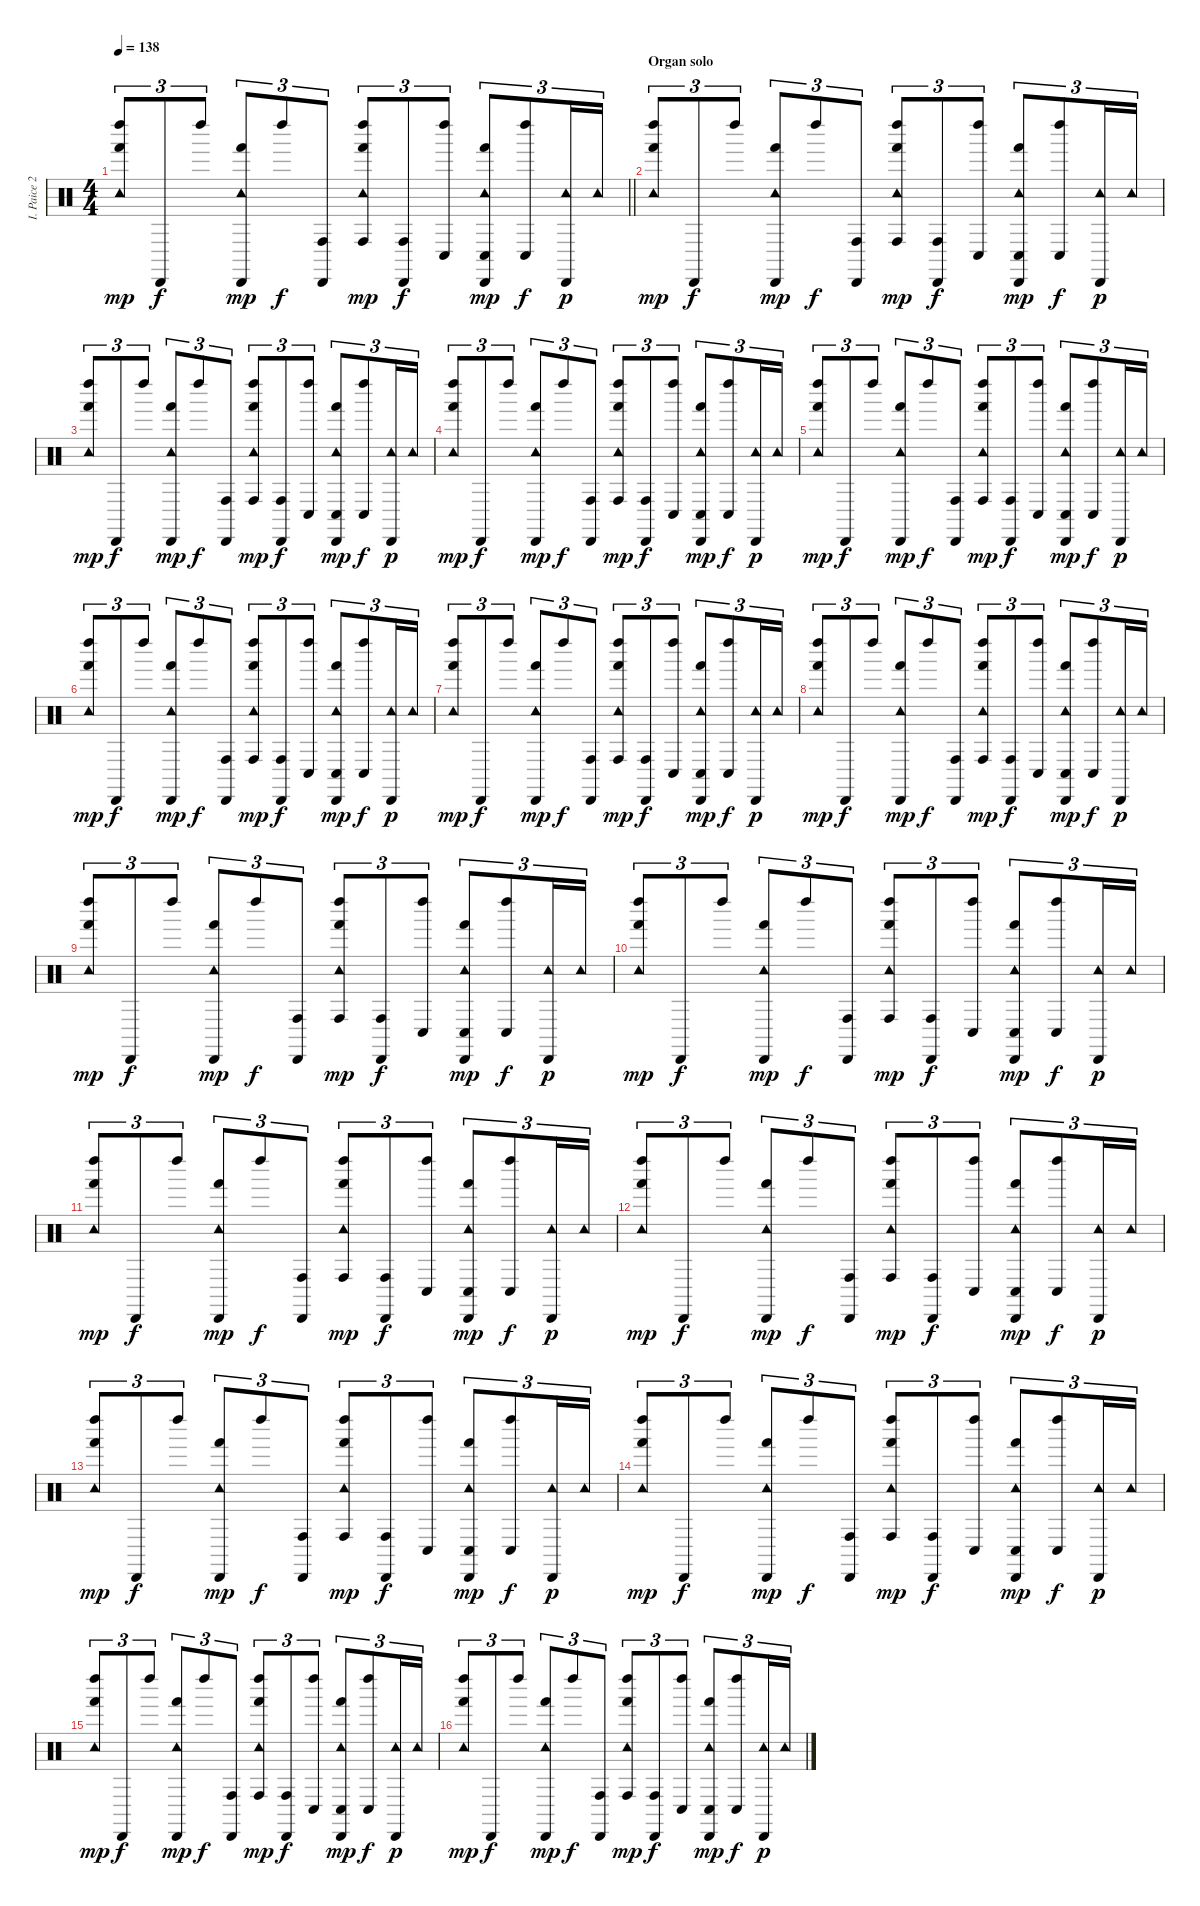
\track ("I. Paice 2" "I. Paice 2") {instrument percussion}
\staff {score}
\articulation defaults
\ts (4 4)
\tempo 138
\clef neutral
\barLineRight lightlight
\ks c
("Tambourine (hit)" "Left Maraca (hit)" "Hand (hit)").8{tu (3 2) dy mp} "Cabasa (hit)".8{tu (3 2) dy f} "Left Maraca (hit)".8{tu (3 2)} ("Tambourine (hit)" "Cabasa (hit)" "Hand (hit)").8{tu (3 2) dy mp} "Left Maraca (hit)".8{tu (3 2) dy f} ("Cabasa (hit)" "Conga high (hit)").8{tu (3 2)} ("Tambourine (hit)" "Left Maraca (hit)" "Hand (hit)" "Conga high (hit)").8{tu (3 2) dy mp} ("Cabasa (hit)" "Conga high (hit)").8{tu (3 2) dy f} ("Left Maraca (hit)" "Conga low (hit)").8{tu (3 2)} ("Tambourine (hit)" "Cabasa (hit)" "Hand (hit)" "Conga low (hit)").8{tu (3 2) dy mp} ("Left Maraca (hit)" "Conga low (hit)").8{tu (3 2) dy f} ("Tambourine (hit)" "Cabasa (hit)").16{tu (3 2) dy p} "Tambourine (hit)".16{tu (3 2)} |
\section ("" "Organ solo")
("Tambourine (hit)" "Left Maraca (hit)" "Hand (hit)").8{tu (3 2) dy mp} "Cabasa (hit)".8{tu (3 2) dy f} "Left Maraca (hit)".8{tu (3 2)} ("Tambourine (hit)" "Cabasa (hit)" "Hand (hit)").8{tu (3 2) dy mp} "Left Maraca (hit)".8{tu (3 2) dy f} ("Cabasa (hit)" "Conga high (hit)").8{tu (3 2)} ("Tambourine (hit)" "Left Maraca (hit)" "Hand (hit)" "Conga high (hit)").8{tu (3 2) dy mp} ("Cabasa (hit)" "Conga high (hit)").8{tu (3 2) dy f} ("Left Maraca (hit)" "Conga low (hit)").8{tu (3 2)} ("Tambourine (hit)" "Cabasa (hit)" "Hand (hit)" "Conga low (hit)").8{tu (3 2) dy mp} ("Left Maraca (hit)" "Conga low (hit)").8{tu (3 2) dy f} ("Tambourine (hit)" "Cabasa (hit)").16{tu (3 2) dy p} "Tambourine (hit)".16{tu (3 2)} |
("Tambourine (hit)" "Left Maraca (hit)" "Hand (hit)").8{tu (3 2) dy mp} "Cabasa (hit)".8{tu (3 2) dy f} "Left Maraca (hit)".8{tu (3 2)} ("Tambourine (hit)" "Cabasa (hit)" "Hand (hit)").8{tu (3 2) dy mp} "Left Maraca (hit)".8{tu (3 2) dy f} ("Cabasa (hit)" "Conga high (hit)").8{tu (3 2)} ("Tambourine (hit)" "Left Maraca (hit)" "Hand (hit)" "Conga high (hit)").8{tu (3 2) dy mp} ("Cabasa (hit)" "Conga high (hit)").8{tu (3 2) dy f} ("Left Maraca (hit)" "Conga low (hit)").8{tu (3 2)} ("Tambourine (hit)" "Cabasa (hit)" "Hand (hit)" "Conga low (hit)").8{tu (3 2) dy mp} ("Left Maraca (hit)" "Conga low (hit)").8{tu (3 2) dy f} ("Tambourine (hit)" "Cabasa (hit)").16{tu (3 2) dy p} "Tambourine (hit)".16{tu (3 2)} |
("Tambourine (hit)" "Left Maraca (hit)" "Hand (hit)").8{tu (3 2) dy mp} "Cabasa (hit)".8{tu (3 2) dy f} "Left Maraca (hit)".8{tu (3 2)} ("Tambourine (hit)" "Cabasa (hit)" "Hand (hit)").8{tu (3 2) dy mp} "Left Maraca (hit)".8{tu (3 2) dy f} ("Cabasa (hit)" "Conga high (hit)").8{tu (3 2)} ("Tambourine (hit)" "Left Maraca (hit)" "Hand (hit)" "Conga high (hit)").8{tu (3 2) dy mp} ("Cabasa (hit)" "Conga high (hit)").8{tu (3 2) dy f} ("Left Maraca (hit)" "Conga low (hit)").8{tu (3 2)} ("Tambourine (hit)" "Cabasa (hit)" "Hand (hit)" "Conga low (hit)").8{tu (3 2) dy mp} ("Left Maraca (hit)" "Conga low (hit)").8{tu (3 2) dy f} ("Tambourine (hit)" "Cabasa (hit)").16{tu (3 2) dy p} "Tambourine (hit)".16{tu (3 2)} |
("Tambourine (hit)" "Left Maraca (hit)" "Hand (hit)").8{tu (3 2) dy mp} "Cabasa (hit)".8{tu (3 2) dy f} "Left Maraca (hit)".8{tu (3 2)} ("Tambourine (hit)" "Cabasa (hit)" "Hand (hit)").8{tu (3 2) dy mp} "Left Maraca (hit)".8{tu (3 2) dy f} ("Cabasa (hit)" "Conga high (hit)").8{tu (3 2)} ("Tambourine (hit)" "Left Maraca (hit)" "Hand (hit)" "Conga high (hit)").8{tu (3 2) dy mp} ("Cabasa (hit)" "Conga high (hit)").8{tu (3 2) dy f} ("Left Maraca (hit)" "Conga low (hit)").8{tu (3 2)} ("Tambourine (hit)" "Cabasa (hit)" "Hand (hit)" "Conga low (hit)").8{tu (3 2) dy mp} ("Left Maraca (hit)" "Conga low (hit)").8{tu (3 2) dy f} ("Tambourine (hit)" "Cabasa (hit)").16{tu (3 2) dy p} "Tambourine (hit)".16{tu (3 2)} |
("Tambourine (hit)" "Left Maraca (hit)" "Hand (hit)").8{tu (3 2) dy mp} "Cabasa (hit)".8{tu (3 2) dy f} "Left Maraca (hit)".8{tu (3 2)} ("Tambourine (hit)" "Cabasa (hit)" "Hand (hit)").8{tu (3 2) dy mp} "Left Maraca (hit)".8{tu (3 2) dy f} ("Cabasa (hit)" "Conga high (hit)").8{tu (3 2)} ("Tambourine (hit)" "Left Maraca (hit)" "Hand (hit)" "Conga high (hit)").8{tu (3 2) dy mp} ("Cabasa (hit)" "Conga high (hit)").8{tu (3 2) dy f} ("Left Maraca (hit)" "Conga low (hit)").8{tu (3 2)} ("Tambourine (hit)" "Cabasa (hit)" "Hand (hit)" "Conga low (hit)").8{tu (3 2) dy mp} ("Left Maraca (hit)" "Conga low (hit)").8{tu (3 2) dy f} ("Tambourine (hit)" "Cabasa (hit)").16{tu (3 2) dy p} "Tambourine (hit)".16{tu (3 2)} |
("Tambourine (hit)" "Left Maraca (hit)" "Hand (hit)").8{tu (3 2) dy mp} "Cabasa (hit)".8{tu (3 2) dy f} "Left Maraca (hit)".8{tu (3 2)} ("Tambourine (hit)" "Cabasa (hit)" "Hand (hit)").8{tu (3 2) dy mp} "Left Maraca (hit)".8{tu (3 2) dy f} ("Cabasa (hit)" "Conga high (hit)").8{tu (3 2)} ("Tambourine (hit)" "Left Maraca (hit)" "Hand (hit)" "Conga high (hit)").8{tu (3 2) dy mp} ("Cabasa (hit)" "Conga high (hit)").8{tu (3 2) dy f} ("Left Maraca (hit)" "Conga low (hit)").8{tu (3 2)} ("Tambourine (hit)" "Cabasa (hit)" "Hand (hit)" "Conga low (hit)").8{tu (3 2) dy mp} ("Left Maraca (hit)" "Conga low (hit)").8{tu (3 2) dy f} ("Tambourine (hit)" "Cabasa (hit)").16{tu (3 2) dy p} "Tambourine (hit)".16{tu (3 2)} |
("Tambourine (hit)" "Left Maraca (hit)" "Hand (hit)").8{tu (3 2) dy mp} "Cabasa (hit)".8{tu (3 2) dy f} "Left Maraca (hit)".8{tu (3 2)} ("Tambourine (hit)" "Cabasa (hit)" "Hand (hit)").8{tu (3 2) dy mp} "Left Maraca (hit)".8{tu (3 2) dy f} ("Cabasa (hit)" "Conga high (hit)").8{tu (3 2)} ("Tambourine (hit)" "Left Maraca (hit)" "Hand (hit)" "Conga high (hit)").8{tu (3 2) dy mp} ("Cabasa (hit)" "Conga high (hit)").8{tu (3 2) dy f} ("Left Maraca (hit)" "Conga low (hit)").8{tu (3 2)} ("Tambourine (hit)" "Cabasa (hit)" "Hand (hit)" "Conga low (hit)").8{tu (3 2) dy mp} ("Left Maraca (hit)" "Conga low (hit)").8{tu (3 2) dy f} ("Tambourine (hit)" "Cabasa (hit)").16{tu (3 2) dy p} "Tambourine (hit)".16{tu (3 2)} |
("Tambourine (hit)" "Left Maraca (hit)" "Hand (hit)").8{tu (3 2) dy mp} "Cabasa (hit)".8{tu (3 2) dy f} "Left Maraca (hit)".8{tu (3 2)} ("Tambourine (hit)" "Cabasa (hit)" "Hand (hit)").8{tu (3 2) dy mp} "Left Maraca (hit)".8{tu (3 2) dy f} ("Cabasa (hit)" "Conga high (hit)").8{tu (3 2)} ("Tambourine (hit)" "Left Maraca (hit)" "Hand (hit)" "Conga high (hit)").8{tu (3 2) dy mp} ("Cabasa (hit)" "Conga high (hit)").8{tu (3 2) dy f} ("Left Maraca (hit)" "Conga low (hit)").8{tu (3 2)} ("Tambourine (hit)" "Cabasa (hit)" "Hand (hit)" "Conga low (hit)").8{tu (3 2) dy mp} ("Left Maraca (hit)" "Conga low (hit)").8{tu (3 2) dy f} ("Tambourine (hit)" "Cabasa (hit)").16{tu (3 2) dy p} "Tambourine (hit)".16{tu (3 2)} |
("Tambourine (hit)" "Left Maraca (hit)" "Hand (hit)").8{tu (3 2) dy mp} "Cabasa (hit)".8{tu (3 2) dy f} "Left Maraca (hit)".8{tu (3 2)} ("Tambourine (hit)" "Cabasa (hit)" "Hand (hit)").8{tu (3 2) dy mp} "Left Maraca (hit)".8{tu (3 2) dy f} ("Cabasa (hit)" "Conga high (hit)").8{tu (3 2)} ("Tambourine (hit)" "Left Maraca (hit)" "Hand (hit)" "Conga high (hit)").8{tu (3 2) dy mp} ("Cabasa (hit)" "Conga high (hit)").8{tu (3 2) dy f} ("Left Maraca (hit)" "Conga low (hit)").8{tu (3 2)} ("Tambourine (hit)" "Cabasa (hit)" "Hand (hit)" "Conga low (hit)").8{tu (3 2) dy mp} ("Left Maraca (hit)" "Conga low (hit)").8{tu (3 2) dy f} ("Tambourine (hit)" "Cabasa (hit)").16{tu (3 2) dy p} "Tambourine (hit)".16{tu (3 2)} |
("Tambourine (hit)" "Left Maraca (hit)" "Hand (hit)").8{tu (3 2) dy mp} "Cabasa (hit)".8{tu (3 2) dy f} "Left Maraca (hit)".8{tu (3 2)} ("Tambourine (hit)" "Cabasa (hit)" "Hand (hit)").8{tu (3 2) dy mp} "Left Maraca (hit)".8{tu (3 2) dy f} ("Cabasa (hit)" "Conga high (hit)").8{tu (3 2)} ("Tambourine (hit)" "Left Maraca (hit)" "Hand (hit)" "Conga high (hit)").8{tu (3 2) dy mp} ("Cabasa (hit)" "Conga high (hit)").8{tu (3 2) dy f} ("Left Maraca (hit)" "Conga low (hit)").8{tu (3 2)} ("Tambourine (hit)" "Cabasa (hit)" "Hand (hit)" "Conga low (hit)").8{tu (3 2) dy mp} ("Left Maraca (hit)" "Conga low (hit)").8{tu (3 2) dy f} ("Tambourine (hit)" "Cabasa (hit)").16{tu (3 2) dy p} "Tambourine (hit)".16{tu (3 2)} |
("Tambourine (hit)" "Left Maraca (hit)" "Hand (hit)").8{tu (3 2) dy mp} "Cabasa (hit)".8{tu (3 2) dy f} "Left Maraca (hit)".8{tu (3 2)} ("Tambourine (hit)" "Cabasa (hit)" "Hand (hit)").8{tu (3 2) dy mp} "Left Maraca (hit)".8{tu (3 2) dy f} ("Cabasa (hit)" "Conga high (hit)").8{tu (3 2)} ("Tambourine (hit)" "Left Maraca (hit)" "Hand (hit)" "Conga high (hit)").8{tu (3 2) dy mp} ("Cabasa (hit)" "Conga high (hit)").8{tu (3 2) dy f} ("Left Maraca (hit)" "Conga low (hit)").8{tu (3 2)} ("Tambourine (hit)" "Cabasa (hit)" "Hand (hit)" "Conga low (hit)").8{tu (3 2) dy mp} ("Left Maraca (hit)" "Conga low (hit)").8{tu (3 2) dy f} ("Tambourine (hit)" "Cabasa (hit)").16{tu (3 2) dy p} "Tambourine (hit)".16{tu (3 2)} |
("Tambourine (hit)" "Left Maraca (hit)" "Hand (hit)").8{tu (3 2) dy mp} "Cabasa (hit)".8{tu (3 2) dy f} "Left Maraca (hit)".8{tu (3 2)} ("Tambourine (hit)" "Cabasa (hit)" "Hand (hit)").8{tu (3 2) dy mp} "Left Maraca (hit)".8{tu (3 2) dy f} ("Cabasa (hit)" "Conga high (hit)").8{tu (3 2)} ("Tambourine (hit)" "Left Maraca (hit)" "Hand (hit)" "Conga high (hit)").8{tu (3 2) dy mp} ("Cabasa (hit)" "Conga high (hit)").8{tu (3 2) dy f} ("Left Maraca (hit)" "Conga low (hit)").8{tu (3 2)} ("Tambourine (hit)" "Cabasa (hit)" "Hand (hit)" "Conga low (hit)").8{tu (3 2) dy mp} ("Left Maraca (hit)" "Conga low (hit)").8{tu (3 2) dy f} ("Tambourine (hit)" "Cabasa (hit)").16{tu (3 2) dy p} "Tambourine (hit)".16{tu (3 2)} |
("Tambourine (hit)" "Left Maraca (hit)" "Hand (hit)").8{tu (3 2) dy mp} "Cabasa (hit)".8{tu (3 2) dy f} "Left Maraca (hit)".8{tu (3 2)} ("Tambourine (hit)" "Cabasa (hit)" "Hand (hit)").8{tu (3 2) dy mp} "Left Maraca (hit)".8{tu (3 2) dy f} ("Cabasa (hit)" "Conga high (hit)").8{tu (3 2)} ("Tambourine (hit)" "Left Maraca (hit)" "Hand (hit)" "Conga high (hit)").8{tu (3 2) dy mp} ("Cabasa (hit)" "Conga high (hit)").8{tu (3 2) dy f} ("Left Maraca (hit)" "Conga low (hit)").8{tu (3 2)} ("Tambourine (hit)" "Cabasa (hit)" "Hand (hit)" "Conga low (hit)").8{tu (3 2) dy mp} ("Left Maraca (hit)" "Conga low (hit)").8{tu (3 2) dy f} ("Tambourine (hit)" "Cabasa (hit)").16{tu (3 2) dy p} "Tambourine (hit)".16{tu (3 2)} |
("Tambourine (hit)" "Left Maraca (hit)" "Hand (hit)").8{tu (3 2) dy mp} "Cabasa (hit)".8{tu (3 2) dy f} "Left Maraca (hit)".8{tu (3 2)} ("Tambourine (hit)" "Cabasa (hit)" "Hand (hit)").8{tu (3 2) dy mp} "Left Maraca (hit)".8{tu (3 2) dy f} ("Cabasa (hit)" "Conga high (hit)").8{tu (3 2)} ("Tambourine (hit)" "Left Maraca (hit)" "Hand (hit)" "Conga high (hit)").8{tu (3 2) dy mp} ("Cabasa (hit)" "Conga high (hit)").8{tu (3 2) dy f} ("Left Maraca (hit)" "Conga low (hit)").8{tu (3 2)} ("Tambourine (hit)" "Cabasa (hit)" "Hand (hit)" "Conga low (hit)").8{tu (3 2) dy mp} ("Left Maraca (hit)" "Conga low (hit)").8{tu (3 2) dy f} ("Tambourine (hit)" "Cabasa (hit)").16{tu (3 2) dy p} "Tambourine (hit)".16{tu (3 2)} |
("Tambourine (hit)" "Left Maraca (hit)" "Hand (hit)").8{tu (3 2) dy mp} "Cabasa (hit)".8{tu (3 2) dy f} "Left Maraca (hit)".8{tu (3 2)} ("Tambourine (hit)" "Cabasa (hit)" "Hand (hit)").8{tu (3 2) dy mp} "Left Maraca (hit)".8{tu (3 2) dy f} ("Cabasa (hit)" "Conga high (hit)").8{tu (3 2)} ("Tambourine (hit)" "Left Maraca (hit)" "Hand (hit)" "Conga high (hit)").8{tu (3 2) dy mp} ("Cabasa (hit)" "Conga high (hit)").8{tu (3 2) dy f} ("Left Maraca (hit)" "Conga low (hit)").8{tu (3 2)} ("Tambourine (hit)" "Cabasa (hit)" "Hand (hit)" "Conga low (hit)").8{tu (3 2) dy mp} ("Left Maraca (hit)" "Conga low (hit)").8{tu (3 2) dy f} ("Tambourine (hit)" "Cabasa (hit)").16{tu (3 2) dy p} "Tambourine (hit)".16{tu (3 2)}
